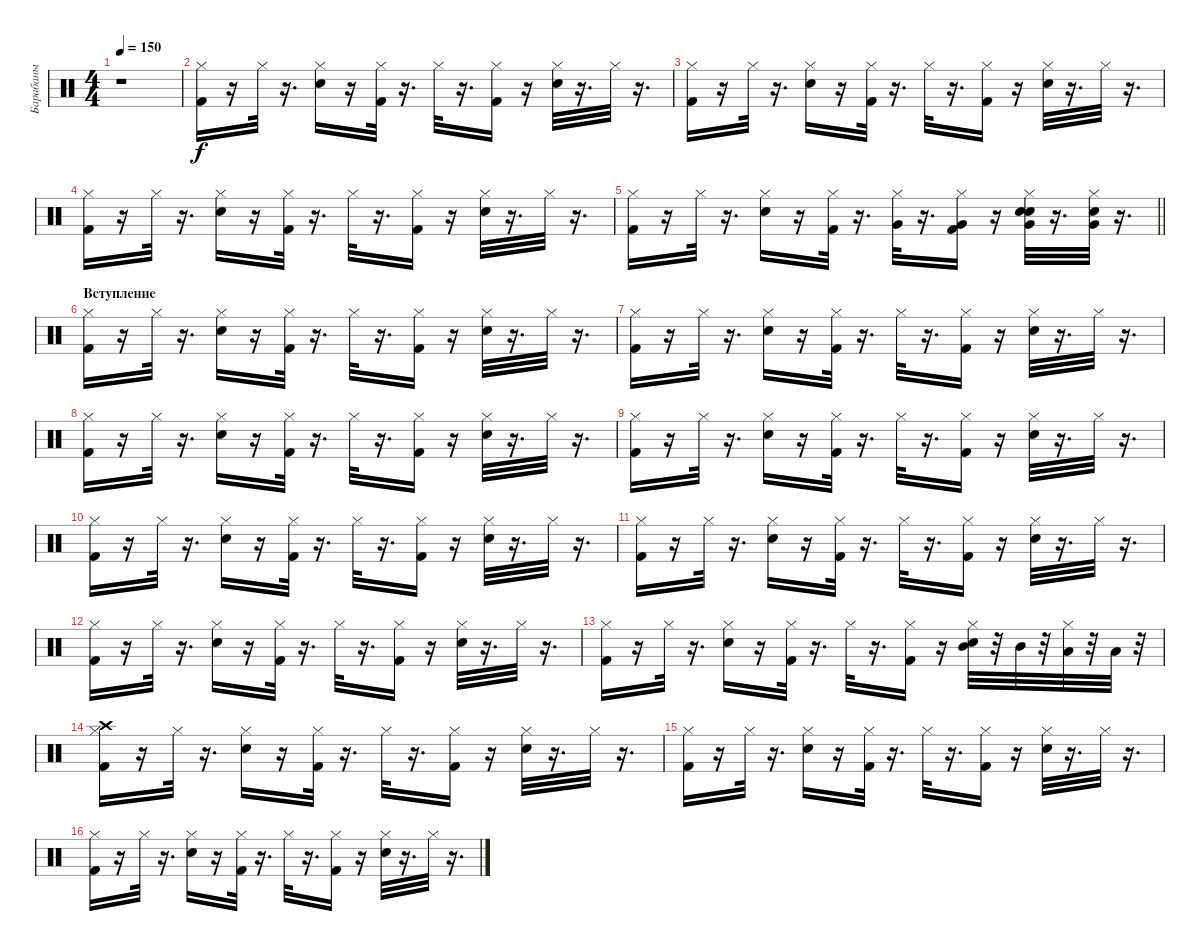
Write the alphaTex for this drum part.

\track ("Барабаны" "Барабаны") {instrument percussion}
\staff {score}
\articulation defaults
\ts (4 4)
\tempo 150
\clef neutral
\ks c
r.1{dy f} |
("Hi-Hat (closed)" "Kick (hit) 2").16 r.16 "Hi-Hat (closed)".32 r.16{d} ("Hi-Hat (closed)" "Electric Snare (hit)").16 r.16 ("Hi-Hat (closed)" "Kick (hit) 2").32 r.16{d} "Hi-Hat (closed)".32 r.16{d} ("Kick (hit) 2" "Hi-Hat (closed)").16 r.16 ("Electric Snare (hit)" "Hi-Hat (closed)").32 r.16{d} "Hi-Hat (closed)".32 r.16{d} |
("Kick (hit) 2" "Hi-Hat (closed)").16 r.16 "Hi-Hat (closed)".32 r.16{d} ("Electric Snare (hit)" "Hi-Hat (closed)").16 r.16 ("Kick (hit) 2" "Hi-Hat (closed)").32 r.16{d} "Hi-Hat (closed)".32 r.16{d} ("Kick (hit) 2" "Hi-Hat (closed)").16 r.16 ("Electric Snare (hit)" "Hi-Hat (closed)").32 r.16{d} "Hi-Hat (closed)".32 r.16{d} |
("Kick (hit) 2" "Hi-Hat (closed)").16 r.16 "Hi-Hat (closed)".32 r.16{d} ("Electric Snare (hit)" "Hi-Hat (closed)").16 r.16 ("Kick (hit) 2" "Hi-Hat (closed)").32 r.16{d} "Hi-Hat (closed)".32 r.16{d} ("Kick (hit) 2" "Hi-Hat (closed)").16 r.16 ("Electric Snare (hit)" "Hi-Hat (closed)").32 r.16{d} "Hi-Hat (closed)".32 r.16{d} |
\barLineRight lightlight
("Kick (hit) 2" "Hi-Hat (closed)").16 r.16 "Hi-Hat (closed)".32 r.16{d} ("Electric Snare (hit)" "Hi-Hat (closed)").16 r.16 ("Kick (hit) 2" "Hi-Hat (closed)").32 r.16{d} ("Very Low Tom (hit)" "Hi-Hat (closed)").32 r.16{d} ("Kick (hit) 2" "Hi-Hat (closed)" "Very Low Tom (hit)").16 r.16 ("Electric Snare (hit)" "Hand Clap (hit)" "Very Low Tom (hit)" "Hi-Hat (closed)").32 r.16{d} ("Hand Clap (hit)" "Very Low Tom (hit)" "Hi-Hat (closed)").32 r.16{d} |
\section ("" "Вступление")
("Hi-Hat (closed)" "Kick (hit) 2").16 r.16 "Hi-Hat (closed)".32 r.16{d} ("Hi-Hat (closed)" "Electric Snare (hit)").16 r.16 ("Kick (hit) 2" "Hi-Hat (closed)").32 r.16{d} "Hi-Hat (closed)".32 r.16{d} ("Hi-Hat (closed)" "Kick (hit) 2").16 r.16 ("Hi-Hat (closed)" "Electric Snare (hit)").32 r.16{d} "Hi-Hat (closed)".32 r.16{d} |
("Kick (hit) 2" "Hi-Hat (closed)").16 r.16 "Hi-Hat (closed)".32 r.16{d} ("Electric Snare (hit)" "Hi-Hat (closed)").16 r.16 ("Kick (hit) 2" "Hi-Hat (closed)").32 r.16{d} "Hi-Hat (closed)".32 r.16{d} ("Kick (hit) 2" "Hi-Hat (closed)").16 r.16 ("Electric Snare (hit)" "Hi-Hat (closed)").32 r.16{d} "Hi-Hat (closed)".32 r.16{d} |
("Kick (hit) 2" "Hi-Hat (closed)").16 r.16 "Hi-Hat (closed)".32 r.16{d} ("Electric Snare (hit)" "Hi-Hat (closed)").16 r.16 ("Kick (hit) 2" "Hi-Hat (closed)").32 r.16{d} "Hi-Hat (closed)".32 r.16{d} ("Kick (hit) 2" "Hi-Hat (closed)").16 r.16 ("Electric Snare (hit)" "Hi-Hat (closed)").32 r.16{d} "Hi-Hat (closed)".32 r.16{d} |
("Kick (hit) 2" "Hi-Hat (closed)").16 r.16 "Hi-Hat (closed)".32 r.16{d} ("Electric Snare (hit)" "Hi-Hat (closed)").16 r.16 ("Kick (hit) 2" "Hi-Hat (closed)").32 r.16{d} "Hi-Hat (closed)".32 r.16{d} ("Kick (hit) 2" "Hi-Hat (closed)").16 r.16 ("Electric Snare (hit)" "Hi-Hat (closed)").32 r.16{d} "Hi-Hat (closed)".32 r.16{d} |
("Hi-Hat (closed)" "Kick (hit) 2").16 r.16 "Hi-Hat (closed)".32 r.16{d} ("Electric Snare (hit)" "Hi-Hat (closed)").16 r.16 ("Hi-Hat (closed)" "Kick (hit) 2").32 r.16{d} "Hi-Hat (closed)".32 r.16{d} ("Hi-Hat (closed)" "Kick (hit) 2").16 r.16 ("Hi-Hat (closed)" "Electric Snare (hit)").32 r.16{d} "Hi-Hat (closed)".32 r.16{d} |
("Hi-Hat (closed)" "Kick (hit) 2").16 r.16 "Hi-Hat (closed)".32 r.16{d} ("Electric Snare (hit)" "Hi-Hat (closed)").16 r.16 ("Kick (hit) 2" "Hi-Hat (closed)").32 r.16{d} "Hi-Hat (closed)".32 r.16{d} ("Kick (hit) 2" "Hi-Hat (closed)").16 r.16 ("Electric Snare (hit)" "Hi-Hat (closed)").32 r.16{d} "Hi-Hat (closed)".32 r.16{d} |
("Kick (hit) 2" "Hi-Hat (closed)").16 r.16 "Hi-Hat (closed)".32 r.16{d} ("Electric Snare (hit)" "Hi-Hat (closed)").16 r.16 ("Kick (hit) 2" "Hi-Hat (closed)").32 r.16{d} "Hi-Hat (closed)".32 r.16{d} ("Kick (hit) 2" "Hi-Hat (closed)").16 r.16 ("Electric Snare (hit)" "Hi-Hat (closed)").32 r.16{d} "Hi-Hat (closed)".32 r.16{d} |
("Kick (hit) 2" "Hi-Hat (closed)").16 r.16 "Hi-Hat (closed)".32 r.16{d} ("Electric Snare (hit)" "Hi-Hat (closed)").16 r.16 ("Kick (hit) 2" "Hi-Hat (closed)").32 r.16{d} "Hi-Hat (closed)".32 r.16{d} ("Kick (hit) 2" "Hi-Hat (closed)").16 r.16 ("Electric Snare (hit)" "Hi-Hat (closed)" "Mid Tom (hit)").32 r.32 "Mid Tom (hit)".32 r.32 ("Low Tom (hit)" "Hi-Hat (closed)").32 r.32 "Low Tom (hit)".32 r.32 |
("Hi-Hat (closed)" "Crash high (hit)" "Kick (hit) 2").16 r.16 "Hi-Hat (closed)".32 r.16{d} ("Electric Snare (hit)" "Hi-Hat (closed)").16 r.16 ("Hi-Hat (closed)" "Kick (hit) 2").32 r.16{d} "Hi-Hat (closed)".32 r.16{d} ("Kick (hit) 2" "Hi-Hat (closed)").16 r.16 ("Hi-Hat (closed)" "Electric Snare (hit)").32 r.16{d} "Hi-Hat (closed)".32 r.16{d} |
("Kick (hit) 2" "Hi-Hat (closed)").16 r.16 "Hi-Hat (closed)".32 r.16{d} ("Electric Snare (hit)" "Hi-Hat (closed)").16 r.16 ("Kick (hit) 2" "Hi-Hat (closed)").32 r.16{d} "Hi-Hat (closed)".32 r.16{d} ("Kick (hit) 2" "Hi-Hat (closed)").16 r.16 ("Electric Snare (hit)" "Hi-Hat (closed)").32 r.16{d} "Hi-Hat (closed)".32 r.16{d} |
("Hi-Hat (closed)" "Kick (hit) 2").16 r.16 "Hi-Hat (closed)".32 r.16{d} ("Electric Snare (hit)" "Hi-Hat (closed)").16 r.16 ("Kick (hit) 2" "Hi-Hat (closed)").32 r.16{d} "Hi-Hat (closed)".32 r.16{d} ("Kick (hit) 2" "Hi-Hat (closed)").16 r.16 ("Electric Snare (hit)" "Hi-Hat (closed)").32 r.16{d} "Hi-Hat (closed)".32 r.16{d}
